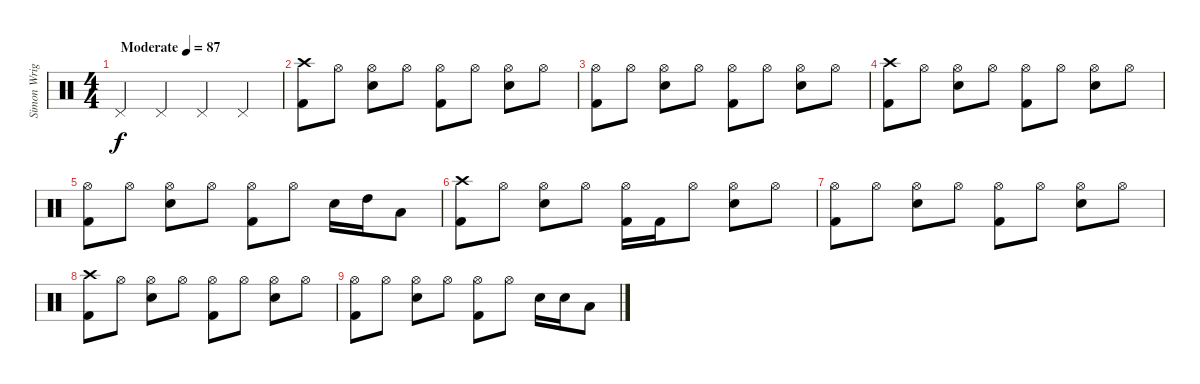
\track ("Simon Wright" "Simon Wrig") {instrument percussion}
\staff {score}
\articulation defaults
\ts (4 4)
\tempo (87 "Moderate")
\clef neutral
\ks c "Pedal Hi-Hat (hit)".4{dy f} "Pedal Hi-Hat (hit)".4 "Pedal Hi-Hat (hit)".4 "Pedal Hi-Hat (hit)".4
|
("Crash high (hit)" "Kick (hit) 2").8 "Hi-Hat (open)".8 ("Hi-Hat (open)" "Snare (hit) 2").8 "Hi-Hat (open)".8 ("Hi-Hat (open)" "Kick (hit) 2").8 "Hi-Hat (open)".8 ("Hi-Hat (open)" "Snare (hit) 2").8 "Hi-Hat (open)".8 |
("Hi-Hat (open)" "Kick (hit) 2").8 "Hi-Hat (open)".8 ("Hi-Hat (open)" "Snare (hit) 2").8 "Hi-Hat (open)".8 ("Hi-Hat (open)" "Kick (hit) 2").8 "Hi-Hat (open)".8 ("Hi-Hat (open)" "Snare (hit) 2").8 "Hi-Hat (open)".8 |
("Crash high (hit)" "Kick (hit) 2").8 "Hi-Hat (open)".8 ("Hi-Hat (open)" "Snare (hit) 2").8 "Hi-Hat (open)".8 ("Hi-Hat (open)" "Kick (hit) 2").8 "Hi-Hat (open)".8 ("Hi-Hat (open)" "Snare (hit) 2").8 "Hi-Hat (open)".8 |
("Hi-Hat (open)" "Kick (hit) 2").8 "Hi-Hat (open)".8 ("Hi-Hat (open)" "Snare (hit) 2").8 "Hi-Hat (open)".8 ("Hi-Hat (open)" "Kick (hit) 2").8 "Hi-Hat (open)".8 "Snare (hit) 2".16 "High Tom (hit)".16 "Low Tom (hit)".8 |
("Crash high (hit)" "Kick (hit) 2").8 "Hi-Hat (open)".8 ("Hi-Hat (open)" "Snare (hit) 2").8 "Hi-Hat (open)".8 ("Hi-Hat (open)" "Kick (hit) 2").16 "Kick (hit) 2".16 "Hi-Hat (open)".8 ("Hi-Hat (open)" "Snare (hit) 2").8 "Hi-Hat (open)".8 |
("Hi-Hat (open)" "Kick (hit) 2").8 "Hi-Hat (open)".8 ("Hi-Hat (open)" "Snare (hit) 2").8 "Hi-Hat (open)".8 ("Hi-Hat (open)" "Kick (hit) 2").8 "Hi-Hat (open)".8 ("Hi-Hat (open)" "Snare (hit) 2").8 "Hi-Hat (open)".8 |
("Crash high (hit)" "Kick (hit) 2").8 "Hi-Hat (open)".8 ("Hi-Hat (open)" "Snare (hit) 2").8 "Hi-Hat (open)".8 ("Hi-Hat (open)" "Kick (hit) 2").8 "Hi-Hat (open)".8 ("Hi-Hat (open)" "Snare (hit) 2").8 "Hi-Hat (open)".8 |
("Hi-Hat (open)" "Kick (hit) 2").8 "Hi-Hat (open)".8 ("Hi-Hat (open)" "Snare (hit) 2").8 "Hi-Hat (open)".8 ("Hi-Hat (open)" "Kick (hit) 2").8 "Hi-Hat (open)".8 "Snare (hit) 2".16 "Snare (hit) 2".16 "Low Tom (hit)".8
